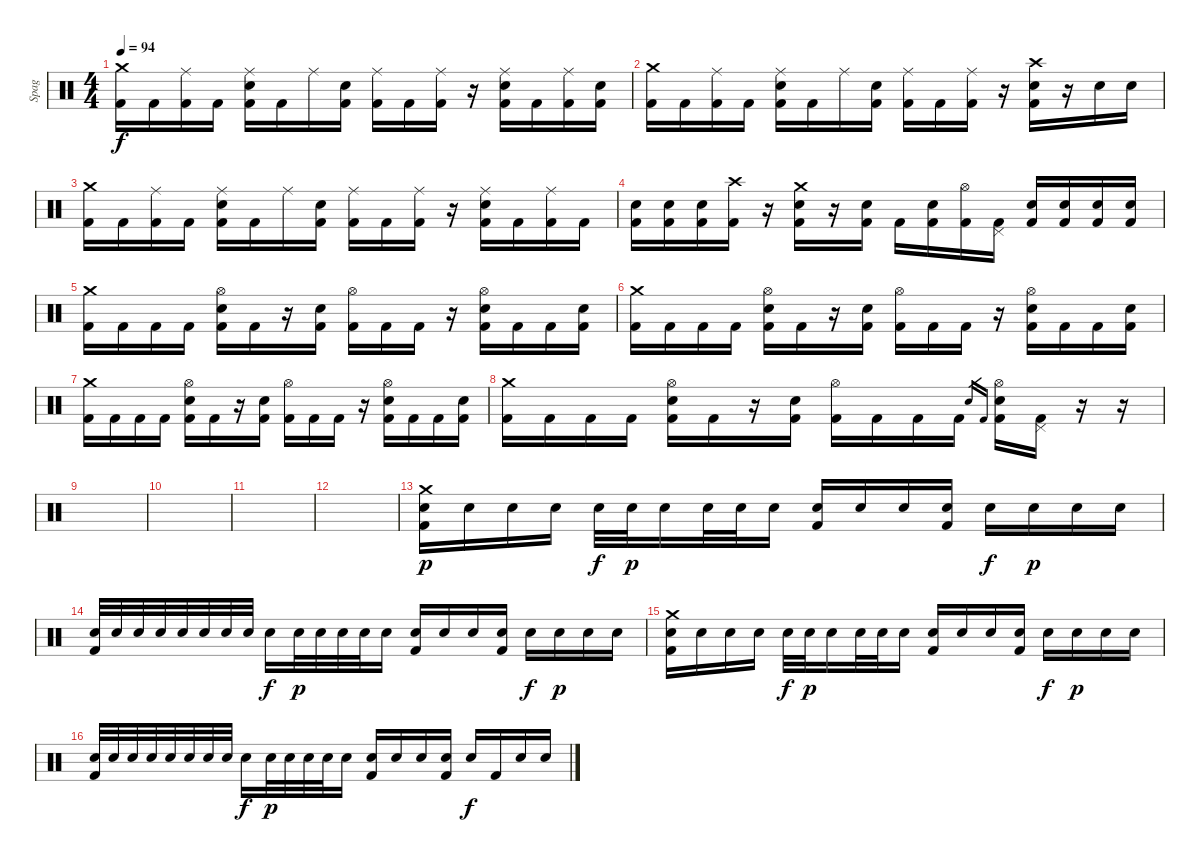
\track ("Spag" "Spag") {instrument percussion}
\staff {score}
\articulation defaults
\ts (4 4)
\tempo 94
\clef neutral
\ks c
("Crash medium (hit)" "Kick (hit) 2").16{dy f} "Kick (hit) 2".16 ("Ride (middle)" "Kick (hit) 2").16 "Kick (hit) 2".16 ("Ride (middle)" "Electric Snare (hit)" "Kick (hit) 2").16 "Kick (hit) 2".16 "Ride (middle)".16 ("Electric Snare (hit)" "Kick (hit) 2").16 ("Ride (middle)" "Kick (hit) 2").16 "Kick (hit) 2".16 ("Ride (middle)" "Kick (hit) 2").16 r.16 ("Ride (middle)" "Electric Snare (hit)" "Kick (hit) 2").16 "Kick (hit) 2".16 ("Ride (middle)" "Kick (hit) 2").16 ("Electric Snare (hit)" "Kick (hit) 2").16 |
("Crash medium (hit)" "Kick (hit) 2").16 "Kick (hit) 2".16 ("Ride (middle)" "Kick (hit) 2").16 "Kick (hit) 2".16 ("Ride (middle)" "Electric Snare (hit)" "Kick (hit) 2").16 "Kick (hit) 2".16 "Ride (middle)".16 ("Electric Snare (hit)" "Kick (hit) 2").16 ("Ride (middle)" "Kick (hit) 2").16 "Kick (hit) 2".16 ("Ride (middle)" "Kick (hit) 2").16 r.16 ("Crash high (hit)" "Electric Snare (hit)" "Kick (hit) 2").16 r.16 "Electric Snare (hit)".16 "Electric Snare (hit)".16 |
("Crash medium (hit)" "Kick (hit) 2").16 "Kick (hit) 2".16 ("Ride (middle)" "Kick (hit) 2").16 "Kick (hit) 2".16 ("Ride (middle)" "Electric Snare (hit)" "Kick (hit) 2").16 "Kick (hit) 2".16 "Ride (middle)".16 ("Electric Snare (hit)" "Kick (hit) 2").16 ("Ride (middle)" "Kick (hit) 2").16 "Kick (hit) 2".16 ("Ride (middle)" "Kick (hit) 2").16 r.16 ("Ride (middle)" "Electric Snare (hit)" "Kick (hit) 2").16 "Kick (hit) 2".16 ("Ride (middle)" "Kick (hit) 2").16 "Kick (hit) 2".16 |
("Electric Snare (hit)" "Kick (hit) 2").16 ("Electric Snare (hit)" "Kick (hit) 2").16 ("Electric Snare (hit)" "Kick (hit) 2").16 ("Crash high (hit)" "Kick (hit) 2").16 r.16 ("Crash medium (hit)" "Electric Snare (hit)" "Kick (hit) 2").16 r.16 ("Electric Snare (hit)" "Kick (hit) 2").16 "Kick (hit) 2".16 ("Electric Snare (hit)" "Kick (hit) 2").16 ("Hi-Hat (open)" "Kick (hit) 2").16 ("Pedal Hi-Hat (hit)" "Kick (hit) 2").16 ("Electric Snare (hit)" "Kick (hit) 2").16 ("Electric Snare (hit)" "Kick (hit) 2").16 ("Electric Snare (hit)" "Kick (hit) 2").16 ("Electric Snare (hit)" "Kick (hit) 2").16 |
("Crash medium (hit)" "Kick (hit) 2").16 "Kick (hit) 2".16 "Kick (hit) 2".16 "Kick (hit) 2".16 ("Hi-Hat (open)" "Electric Snare (hit)" "Kick (hit) 2").16 "Kick (hit) 2".16 r.16 ("Electric Snare (hit)" "Kick (hit) 2").16 ("Hi-Hat (open)" "Kick (hit) 2").16 "Kick (hit) 2".16 "Kick (hit) 2".16 r.16 ("Hi-Hat (open)" "Electric Snare (hit)" "Kick (hit) 2").16 "Kick (hit) 2".16 "Kick (hit) 2".16 ("Electric Snare (hit)" "Kick (hit) 2").16 |
("Crash medium (hit)" "Kick (hit) 2").16 "Kick (hit) 2".16 "Kick (hit) 2".16 "Kick (hit) 2".16 ("Hi-Hat (open)" "Electric Snare (hit)" "Kick (hit) 2").16 "Kick (hit) 2".16 r.16 ("Electric Snare (hit)" "Kick (hit) 2").16 ("Hi-Hat (open)" "Kick (hit) 2").16 "Kick (hit) 2".16 "Kick (hit) 2".16 r.16 ("Hi-Hat (open)" "Electric Snare (hit)" "Kick (hit) 2").16 "Kick (hit) 2".16 "Kick (hit) 2".16 ("Electric Snare (hit)" "Kick (hit) 2").16 |
("Crash medium (hit)" "Kick (hit) 2").16 "Kick (hit) 2".16 "Kick (hit) 2".16 "Kick (hit) 2".16 ("Hi-Hat (open)" "Electric Snare (hit)" "Kick (hit) 2").16 "Kick (hit) 2".16 r.16 ("Electric Snare (hit)" "Kick (hit) 2").16 ("Hi-Hat (open)" "Kick (hit) 2").16 "Kick (hit) 2".16 "Kick (hit) 2".16 r.16 ("Hi-Hat (open)" "Electric Snare (hit)" "Kick (hit) 2").16 "Kick (hit) 2".16 "Kick (hit) 2".16 ("Electric Snare (hit)" "Kick (hit) 2").16 |
("Crash medium (hit)" "Kick (hit) 2").16 "Kick (hit) 2".16 "Kick (hit) 2".16 "Kick (hit) 2".16 ("Hi-Hat (open)" "Electric Snare (hit)" "Kick (hit) 2").16 "Kick (hit) 2".16 r.16 ("Electric Snare (hit)" "Kick (hit) 2").16 ("Hi-Hat (open)" "Kick (hit) 2").16 "Kick (hit) 2".16 "Kick (hit) 2".16 "Kick (hit) 2".16 "Electric Snare (hit)".16{gr} "Kick (hit) 2".16{gr} ("Hi-Hat (open)" "Electric Snare (hit)" "Kick (hit) 2").16 ("Pedal Hi-Hat (hit)" "Kick (hit) 2").16 r.16 r.16 |
|
|
|
|
("Crash medium (hit)" "Electric Snare (hit)" "Kick (hit) 2").16{dy p} "Electric Snare (hit)".16 "Electric Snare (hit)".16 "Electric Snare (hit)".16 "Electric Snare (hit)".32{dy f} "Electric Snare (hit)".32{dy p} "Electric Snare (hit)".16 "Electric Snare (hit)".32 "Electric Snare (hit)".32 "Electric Snare (hit)".16 ("Electric Snare (hit)" "Kick (hit) 2").16 "Electric Snare (hit)".16 "Electric Snare (hit)".16 ("Electric Snare (hit)" "Kick (hit) 2").16 "Electric Snare (hit)".16{dy f} "Electric Snare (hit)".16{dy p} "Electric Snare (hit)".16 "Electric Snare (hit)".16 |
("Electric Snare (hit)" "Kick (hit) 2").32 "Electric Snare (hit)".32 "Electric Snare (hit)".32 "Electric Snare (hit)".32 "Electric Snare (hit)".32 "Electric Snare (hit)".32 "Electric Snare (hit)".32 "Electric Snare (hit)".32 "Electric Snare (hit)".16{dy f} "Electric Snare (hit)".32{dy p} "Electric Snare (hit)".32 "Electric Snare (hit)".32 "Electric Snare (hit)".32 "Electric Snare (hit)".16 ("Electric Snare (hit)" "Kick (hit) 2").16 "Electric Snare (hit)".16 "Electric Snare (hit)".16 ("Electric Snare (hit)" "Kick (hit) 2").16 "Electric Snare (hit)".16{dy f} "Electric Snare (hit)".16{dy p} "Electric Snare (hit)".16 "Electric Snare (hit)".16 |
("Crash medium (hit)" "Electric Snare (hit)" "Kick (hit) 2").16 "Electric Snare (hit)".16 "Electric Snare (hit)".16 "Electric Snare (hit)".16 "Electric Snare (hit)".32{dy f} "Electric Snare (hit)".32{dy p} "Electric Snare (hit)".16 "Electric Snare (hit)".32 "Electric Snare (hit)".32 "Electric Snare (hit)".16 ("Electric Snare (hit)" "Kick (hit) 2").16 "Electric Snare (hit)".16 "Electric Snare (hit)".16 ("Electric Snare (hit)" "Kick (hit) 2").16 "Electric Snare (hit)".16{dy f} "Electric Snare (hit)".16{dy p} "Electric Snare (hit)".16 "Electric Snare (hit)".16 |
("Electric Snare (hit)" "Kick (hit) 2").32 "Electric Snare (hit)".32 "Electric Snare (hit)".32 "Electric Snare (hit)".32 "Electric Snare (hit)".32 "Electric Snare (hit)".32 "Electric Snare (hit)".32 "Electric Snare (hit)".32 "Electric Snare (hit)".16{dy f} "Electric Snare (hit)".32{dy p} "Electric Snare (hit)".32 "Electric Snare (hit)".32 "Electric Snare (hit)".32 "Electric Snare (hit)".16 ("Electric Snare (hit)" "Kick (hit) 2").16 "Electric Snare (hit)".16 "Electric Snare (hit)".16 ("Electric Snare (hit)" "Kick (hit) 2").16 "Electric Snare (hit)".16{dy f} "Kick (hit) 2".16 "Electric Snare (hit)".16 "Electric Snare (hit)".16
